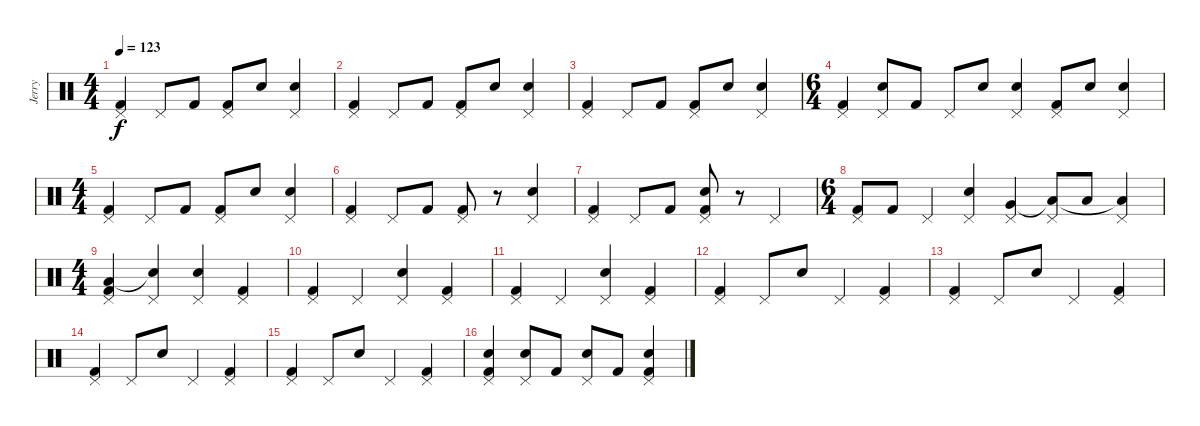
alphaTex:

\track ("Jerry" "Jerry") {instrument percussion}
\staff {score}
\articulation defaults
\ts (4 4)
\tempo 123
\clef neutral
\ks c
("Pedal Hi-Hat (hit)" "Kick (hit) 2").4{dy f} "Pedal Hi-Hat (hit)".8 "Kick (hit) 2".8 ("Pedal Hi-Hat (hit)" "Kick (hit) 2").8 "Snare (hit) 2".8 ("Pedal Hi-Hat (hit)" "Snare (hit) 2").4 |
("Pedal Hi-Hat (hit)" "Kick (hit) 2").4 "Pedal Hi-Hat (hit)".8 "Kick (hit) 2".8 ("Pedal Hi-Hat (hit)" "Kick (hit) 2").8 "Snare (hit) 2".8 ("Pedal Hi-Hat (hit)" "Snare (hit) 2").4 |
("Pedal Hi-Hat (hit)" "Kick (hit) 2").4 "Pedal Hi-Hat (hit)".8 "Kick (hit) 2".8 ("Pedal Hi-Hat (hit)" "Kick (hit) 2").8 "Snare (hit) 2".8 ("Pedal Hi-Hat (hit)" "Snare (hit) 2").4 |
\ts (6 4)
("Pedal Hi-Hat (hit)" "Kick (hit) 2").4 ("Pedal Hi-Hat (hit)" "Snare (hit) 2").8 "Kick (hit) 2".8 "Pedal Hi-Hat (hit)".8 "Snare (hit) 2".8 ("Pedal Hi-Hat (hit)" "Snare (hit) 2").4 ("Pedal Hi-Hat (hit)" "Kick (hit) 2").8 "Snare (hit) 2".8 ("Pedal Hi-Hat (hit)" "Snare (hit) 2").4 |
\ts (4 4)
("Pedal Hi-Hat (hit)" "Kick (hit) 2").4 "Pedal Hi-Hat (hit)".8 "Kick (hit) 2".8 ("Pedal Hi-Hat (hit)" "Kick (hit) 2").8 "Snare (hit) 2".8 ("Pedal Hi-Hat (hit)" "Snare (hit) 2").4 |
("Pedal Hi-Hat (hit)" "Kick (hit) 2").4 "Pedal Hi-Hat (hit)".8 "Kick (hit) 2".8 ("Pedal Hi-Hat (hit)" "Kick (hit) 2").8 r.8 ("Pedal Hi-Hat (hit)" "Snare (hit) 2").4 |
("Pedal Hi-Hat (hit)" "Kick (hit) 2").4 "Pedal Hi-Hat (hit)".8 "Kick (hit) 2".8 ("Pedal Hi-Hat (hit)" "Snare (hit) 2" "Kick (hit) 2").8 r.8 "Pedal Hi-Hat (hit)".4 |
\ts (6 4)
("Pedal Hi-Hat (hit)" "Kick (hit) 2").8 "Kick (hit) 2".8 "Pedal Hi-Hat (hit)".4 ("Pedal Hi-Hat (hit)" "Snare (hit) 2").4 ("Pedal Hi-Hat (hit)" "Very Low Tom (hit)").4 ("Pedal Hi-Hat (hit)" "Low Tom (hit)"{t}).8 "Low Tom (hit)".8 ("Pedal Hi-Hat (hit)" "Low Floor Tom (hit)"{t}).4 |
\ts (4 4)
("Pedal Hi-Hat (hit)" "Low Floor Tom (hit)" "Kick (hit) 2").4 ("Pedal Hi-Hat (hit)" "Snare (hit)"{t}).4 ("Pedal Hi-Hat (hit)" "Snare (hit) 2").4 ("Pedal Hi-Hat (hit)" "Kick (hit) 2").4 |
("Pedal Hi-Hat (hit)" "Kick (hit) 2").4 "Pedal Hi-Hat (hit)".4 ("Pedal Hi-Hat (hit)" "Snare (hit) 2").4 ("Pedal Hi-Hat (hit)" "Kick (hit) 2").4 |
("Pedal Hi-Hat (hit)" "Kick (hit) 2").4 "Pedal Hi-Hat (hit)".4 ("Pedal Hi-Hat (hit)" "Snare (hit) 2").4 ("Pedal Hi-Hat (hit)" "Kick (hit) 2").4 |
("Pedal Hi-Hat (hit)" "Kick (hit) 2").4 "Pedal Hi-Hat (hit)".8 "Snare (hit) 2".8 "Pedal Hi-Hat (hit)".4 ("Pedal Hi-Hat (hit)" "Kick (hit) 2").4 |
("Pedal Hi-Hat (hit)" "Kick (hit) 2").4 "Pedal Hi-Hat (hit)".8 "Snare (hit) 2".8 "Pedal Hi-Hat (hit)".4 ("Pedal Hi-Hat (hit)" "Kick (hit) 2").4 |
("Pedal Hi-Hat (hit)" "Kick (hit) 2").4 "Pedal Hi-Hat (hit)".8 "Snare (hit) 2".8 "Pedal Hi-Hat (hit)".4 ("Pedal Hi-Hat (hit)" "Kick (hit) 2").4 |
("Pedal Hi-Hat (hit)" "Kick (hit) 2").4 "Pedal Hi-Hat (hit)".8 "Snare (hit) 2".8 "Pedal Hi-Hat (hit)".4 ("Pedal Hi-Hat (hit)" "Kick (hit) 2").4 |
("Pedal Hi-Hat (hit)" "Snare (hit) 2" "Kick (hit) 2").4 ("Pedal Hi-Hat (hit)" "Snare (hit) 2").8 "Kick (hit) 2".8 ("Pedal Hi-Hat (hit)" "Snare (hit) 2").8 "Kick (hit) 2".8 ("Pedal Hi-Hat (hit)" "Snare (hit) 2" "Kick (hit) 2").4
